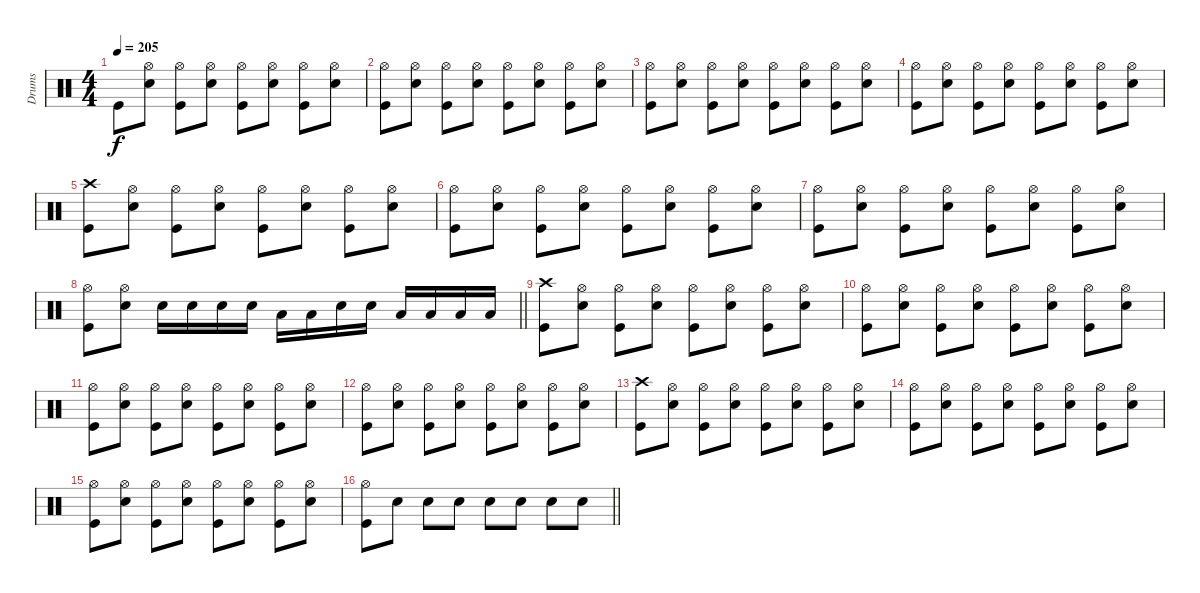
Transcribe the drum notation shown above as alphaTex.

\track ("Drums" "Drums") {instrument percussion}
\staff {score}
\articulation defaults
\ts (4 4)
\tempo 205
\clef neutral
\ks c "Kick (hit)".8{dy f}
("Hi-Hat (open)" "Electric Snare (hit)").8 ("Hi-Hat (open)" "Kick (hit)").8 ("Hi-Hat (open)" "Electric Snare (hit)").8 ("Hi-Hat (open)" "Kick (hit)").8 ("Hi-Hat (open)" "Electric Snare (hit)").8 ("Hi-Hat (open)" "Kick (hit)").8 ("Hi-Hat (open)" "Electric Snare (hit)").8 |
("Hi-Hat (open)" "Kick (hit)").8 ("Hi-Hat (open)" "Electric Snare (hit)").8 ("Hi-Hat (open)" "Kick (hit)").8 ("Hi-Hat (open)" "Electric Snare (hit)").8 ("Hi-Hat (open)" "Kick (hit)").8 ("Hi-Hat (open)" "Electric Snare (hit)").8 ("Hi-Hat (open)" "Kick (hit)").8 ("Hi-Hat (open)" "Electric Snare (hit)").8 |
("Hi-Hat (open)" "Kick (hit)").8 ("Hi-Hat (open)" "Electric Snare (hit)").8 ("Hi-Hat (open)" "Kick (hit)").8 ("Hi-Hat (open)" "Electric Snare (hit)").8 ("Hi-Hat (open)" "Kick (hit)").8 ("Hi-Hat (open)" "Electric Snare (hit)").8 ("Hi-Hat (open)" "Kick (hit)").8 ("Hi-Hat (open)" "Electric Snare (hit)").8 |
("Hi-Hat (open)" "Kick (hit)").8 ("Hi-Hat (open)" "Electric Snare (hit)").8 ("Hi-Hat (open)" "Kick (hit)").8 ("Hi-Hat (open)" "Electric Snare (hit)").8 ("Hi-Hat (open)" "Kick (hit)").8 ("Hi-Hat (open)" "Electric Snare (hit)").8 ("Hi-Hat (open)" "Kick (hit)").8 ("Hi-Hat (open)" "Electric Snare (hit)").8 |
("Crash high (hit)" "Kick (hit)").8 ("Hi-Hat (open)" "Electric Snare (hit)").8 ("Hi-Hat (open)" "Kick (hit)").8 ("Hi-Hat (open)" "Electric Snare (hit)").8 ("Hi-Hat (open)" "Kick (hit)").8 ("Hi-Hat (open)" "Electric Snare (hit)").8 ("Hi-Hat (open)" "Kick (hit)").8 ("Hi-Hat (open)" "Electric Snare (hit)").8 |
("Hi-Hat (open)" "Kick (hit)").8 ("Hi-Hat (open)" "Electric Snare (hit)").8 ("Hi-Hat (open)" "Kick (hit)").8 ("Hi-Hat (open)" "Electric Snare (hit)").8 ("Hi-Hat (open)" "Kick (hit)").8 ("Hi-Hat (open)" "Electric Snare (hit)").8 ("Hi-Hat (open)" "Kick (hit)").8 ("Hi-Hat (open)" "Electric Snare (hit)").8 |
("Hi-Hat (open)" "Kick (hit)").8 ("Hi-Hat (open)" "Electric Snare (hit)").8 ("Hi-Hat (open)" "Kick (hit)").8 ("Hi-Hat (open)" "Electric Snare (hit)").8 ("Hi-Hat (open)" "Kick (hit)").8 ("Hi-Hat (open)" "Electric Snare (hit)").8 ("Hi-Hat (open)" "Kick (hit)").8 ("Hi-Hat (open)" "Electric Snare (hit)").8 |
\barLineRight lightlight
("Hi-Hat (open)" "Kick (hit)").8 ("Hi-Hat (open)" "Electric Snare (hit)").8 "Electric Snare (hit)".16 "Electric Snare (hit)".16 "Electric Snare (hit)".16 "Electric Snare (hit)".16 "Low Tom (hit)".16 "Low Tom (hit)".16 "Electric Snare (hit)".16 "Electric Snare (hit)".16 "Low Tom (hit)".16 "Low Tom (hit)".16 "Low Floor Tom (hit)".16 "Low Floor Tom (hit)".16 |
("Crash high (hit)" "Kick (hit)").8 ("Hi-Hat (open)" "Electric Snare (hit)").8 ("Hi-Hat (open)" "Kick (hit)").8 ("Hi-Hat (open)" "Electric Snare (hit)").8 ("Hi-Hat (open)" "Kick (hit)").8 ("Hi-Hat (open)" "Electric Snare (hit)").8 ("Hi-Hat (open)" "Kick (hit)").8 ("Hi-Hat (open)" "Electric Snare (hit)").8 |
("Hi-Hat (open)" "Kick (hit)").8 ("Hi-Hat (open)" "Electric Snare (hit)").8 ("Hi-Hat (open)" "Kick (hit)").8 ("Hi-Hat (open)" "Electric Snare (hit)").8 ("Hi-Hat (open)" "Kick (hit)").8 ("Hi-Hat (open)" "Electric Snare (hit)").8 ("Hi-Hat (open)" "Kick (hit)").8 ("Hi-Hat (open)" "Electric Snare (hit)").8 |
("Hi-Hat (open)" "Kick (hit)").8 ("Hi-Hat (open)" "Electric Snare (hit)").8 ("Hi-Hat (open)" "Kick (hit)").8 ("Hi-Hat (open)" "Electric Snare (hit)").8 ("Hi-Hat (open)" "Kick (hit)").8 ("Hi-Hat (open)" "Electric Snare (hit)").8 ("Hi-Hat (open)" "Kick (hit)").8 ("Hi-Hat (open)" "Electric Snare (hit)").8 |
("Hi-Hat (open)" "Kick (hit)").8 ("Hi-Hat (open)" "Electric Snare (hit)").8 ("Hi-Hat (open)" "Kick (hit)").8 ("Hi-Hat (open)" "Electric Snare (hit)").8 ("Hi-Hat (open)" "Kick (hit)").8 ("Hi-Hat (open)" "Electric Snare (hit)").8 ("Hi-Hat (open)" "Kick (hit)").8 ("Hi-Hat (open)" "Electric Snare (hit)").8 |
("Crash high (hit)" "Kick (hit)").8 ("Hi-Hat (open)" "Electric Snare (hit)").8 ("Hi-Hat (open)" "Kick (hit)").8 ("Hi-Hat (open)" "Electric Snare (hit)").8 ("Hi-Hat (open)" "Kick (hit)").8 ("Hi-Hat (open)" "Electric Snare (hit)").8 ("Hi-Hat (open)" "Kick (hit)").8 ("Hi-Hat (open)" "Electric Snare (hit)").8 |
("Hi-Hat (open)" "Kick (hit)").8 ("Hi-Hat (open)" "Electric Snare (hit)").8 ("Hi-Hat (open)" "Kick (hit)").8 ("Hi-Hat (open)" "Electric Snare (hit)").8 ("Hi-Hat (open)" "Kick (hit)").8 ("Hi-Hat (open)" "Electric Snare (hit)").8 ("Hi-Hat (open)" "Kick (hit)").8 ("Hi-Hat (open)" "Electric Snare (hit)").8 |
("Hi-Hat (open)" "Kick (hit)").8 ("Hi-Hat (open)" "Electric Snare (hit)").8 ("Hi-Hat (open)" "Kick (hit)").8 ("Hi-Hat (open)" "Electric Snare (hit)").8 ("Hi-Hat (open)" "Kick (hit)").8 ("Hi-Hat (open)" "Electric Snare (hit)").8 ("Hi-Hat (open)" "Kick (hit)").8 ("Hi-Hat (open)" "Electric Snare (hit)").8 |
\barLineRight lightlight
("Hi-Hat (open)" "Kick (hit)").8 "Electric Snare (hit)".8 "Electric Snare (hit)".8 "Electric Snare (hit)".8 "Electric Snare (hit)".8 "Electric Snare (hit)".8 "Electric Snare (hit)".8 "Electric Snare (hit)".8
